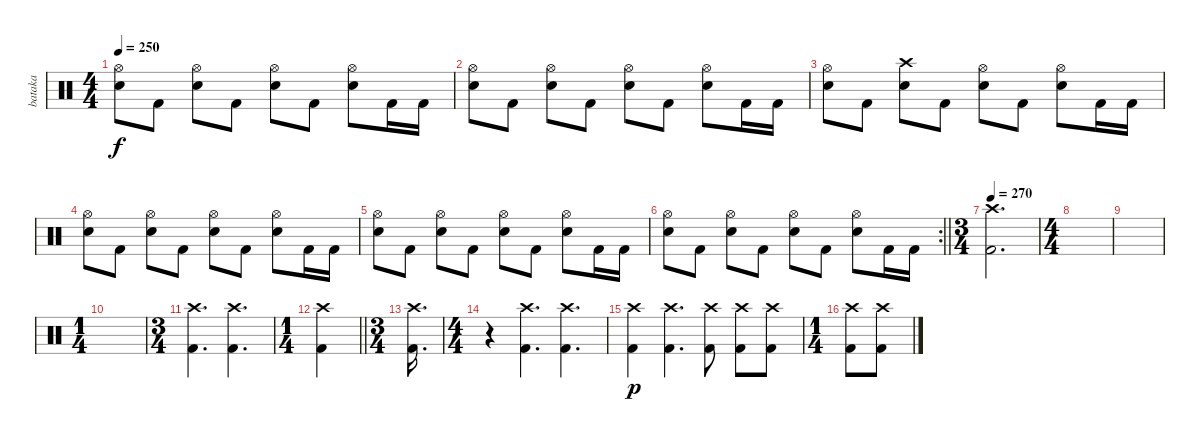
\track ("bataka" "bataka") {instrument percussion}
\staff {score}
\articulation defaults
\ts (4 4)
\tempo 250
\clef neutral
\ks c
("Hi-Hat (open)" "Electric Snare (hit)").8{dy f} "Kick (hit) 2".8 ("Hi-Hat (open)" "Electric Snare (hit)").8 "Kick (hit) 2".8 ("Hi-Hat (open)" "Electric Snare (hit)").8 "Kick (hit) 2".8 ("Hi-Hat (open)" "Electric Snare (hit)").8 "Kick (hit) 2".16 "Kick (hit) 2".16 |
("Hi-Hat (open)" "Electric Snare (hit)").8 "Kick (hit) 2".8 ("Hi-Hat (open)" "Electric Snare (hit)").8 "Kick (hit) 2".8 ("Hi-Hat (open)" "Electric Snare (hit)").8 "Kick (hit) 2".8 ("Hi-Hat (open)" "Electric Snare (hit)").8 "Kick (hit) 2".16 "Kick (hit) 2".16 |
("Hi-Hat (open)" "Electric Snare (hit)").8 "Kick (hit) 2".8 ("Crash high (hit)" "Electric Snare (hit)").8 "Kick (hit) 2".8 ("Hi-Hat (open)" "Electric Snare (hit)").8 "Kick (hit) 2".8 ("Hi-Hat (open)" "Electric Snare (hit)").8 "Kick (hit) 2".16 "Kick (hit) 2".16 |
("Hi-Hat (open)" "Electric Snare (hit)").8 "Kick (hit) 2".8 ("Hi-Hat (open)" "Electric Snare (hit)").8 "Kick (hit) 2".8 ("Hi-Hat (open)" "Electric Snare (hit)").8 "Kick (hit) 2".8 ("Hi-Hat (open)" "Electric Snare (hit)").8 "Kick (hit) 2".16 "Kick (hit) 2".16 |
("Hi-Hat (open)" "Electric Snare (hit)").8 "Kick (hit) 2".8 ("Hi-Hat (open)" "Electric Snare (hit)").8 "Kick (hit) 2".8 ("Hi-Hat (open)" "Electric Snare (hit)").8 "Kick (hit) 2".8 ("Hi-Hat (open)" "Electric Snare (hit)").8 "Kick (hit) 2".16 "Kick (hit) 2".16 |
\rc 2
\barLineRight lightlight
("Hi-Hat (open)" "Electric Snare (hit)").8 "Kick (hit) 2".8 ("Hi-Hat (open)" "Electric Snare (hit)").8 "Kick (hit) 2".8 ("Hi-Hat (open)" "Electric Snare (hit)").8 "Kick (hit) 2".8 ("Hi-Hat (open)" "Electric Snare (hit)").8 "Kick (hit) 2".16 "Kick (hit) 2".16 |
\ts (3 4)
\tempo 270
("Crash high (hit)" "Kick (hit) 2").2{d} |
\ts (4 4)
|
|
\ts (1 4)
|
\ts (3 4)
("Crash high (hit)" "Kick (hit) 2").4{d} ("Crash high (hit)" "Kick (hit) 2").4{d} |
\ts (1 4)
\barLineRight lightlight
("Crash high (hit)" "Kick (hit) 2").4 |
\ts (3 4)
("Crash high (hit)" "Kick (hit) 2").16{d} |
\ts (4 4)
r.4 ("Crash high (hit)" "Kick (hit) 2").4{d} ("Crash high (hit)" "Kick (hit) 2").4{d} |
("Crash high (hit)" "Kick (hit) 2").4{dy p} ("Crash high (hit)" "Kick (hit) 2").4{d} ("Crash high (hit)" "Kick (hit) 2").8 ("Crash high (hit)" "Kick (hit) 2").8 ("Crash high (hit)" "Kick (hit) 2").8 |
\ts (1 4)
("Crash high (hit)" "Kick (hit) 2").8 ("Crash high (hit)" "Kick (hit) 2").8
